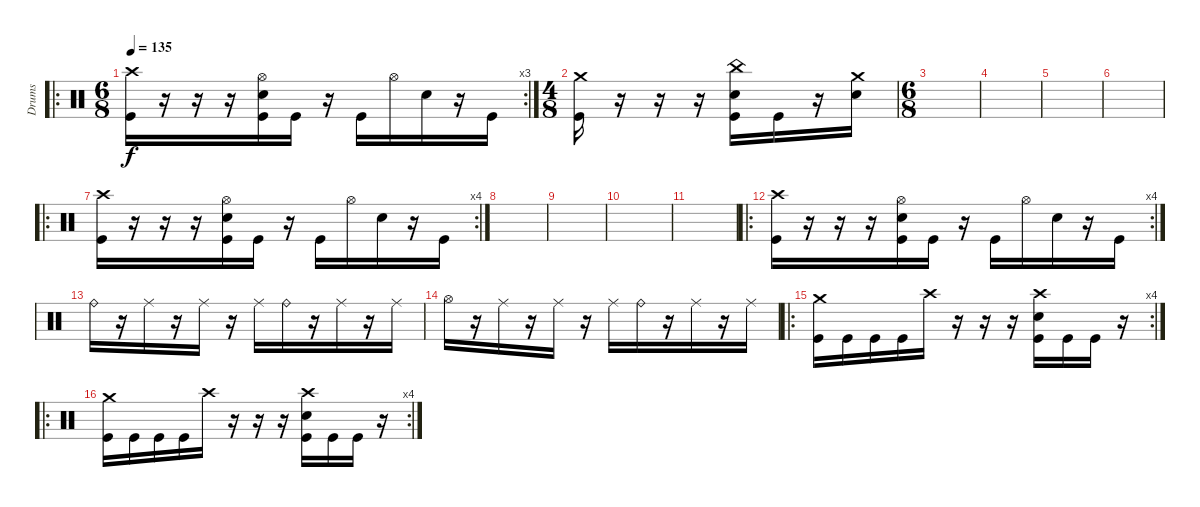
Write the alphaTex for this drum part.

\track ("Drums" "Drums") {instrument percussion}
\staff {score}
\articulation defaults
\ro
\rc 3
\ts (6 8)
\tempo 135
\clef neutral
\ks c
("Crash high (hit)" "Kick (hit)").16{dy f} r.16 r.16 r.16 ("Hi-Hat (open)" "Snare (hit) 2" "Kick (hit)").16 "Kick (hit)".16 r.16 "Kick (hit)".16 "Hi-Hat (open)".16 "Snare (hit) 2".16 r.16 "Kick (hit)".16 |
\ts (4 8)
("Crash medium (hit)" "Kick (hit)").16 r.16 r.16 r.16 ("China (hit)" "Snare (hit) 2" "Kick (hit)").16 "Kick (hit)".16 r.16 ("Crash medium (hit)" "Snare (hit) 2").16 |
\ts (6 8)
|
|
|
|
\ro
\rc 4
("Crash high (hit)" "Kick (hit)").16 r.16 r.16 r.16 ("Hi-Hat (open)" "Snare (hit) 2" "Kick (hit)").16 "Kick (hit)".16 r.16 "Kick (hit)".16 "Hi-Hat (open)".16 "Snare (hit) 2".16 r.16 "Kick (hit)".16 |
|
|
|
|
\ro
\rc 4
("Crash high (hit)" "Kick (hit)").16 r.16 r.16 r.16 ("Hi-Hat (open)" "Snare (hit) 2" "Kick (hit)").16 "Kick (hit)".16 r.16 "Kick (hit)".16 "Hi-Hat (open)".16 "Snare (hit) 2".16 r.16 "Kick (hit)".16 |
"Ride (bell)".16 r.16 "Ride (middle)".16 r.16 "Ride (middle)".16 r.16 "Ride (middle)".16 "Ride (bell)".16 r.16 "Ride (middle)".16 r.16 "Ride (middle)".16 |
"Hi-Hat (open)".16 r.16 "Ride (middle)".16 r.16 "Ride (middle)".16 r.16 "Ride (middle)".16 "Ride (bell)".16 r.16 "Ride (middle)".16 r.16 "Ride (middle)".16 |
\ro
\rc 4
("Crash medium (hit)" "Kick (hit)").16 "Kick (hit)".16 "Kick (hit)".16 "Kick (hit)".16 "Crash high (hit)".16 r.16 r.16 r.16 ("Crash high (hit)" "Snare (hit) 2" "Kick (hit)").16 "Kick (hit)".16 "Kick (hit)".16 r.16 |
\ro
\rc 4
("Crash medium (hit)" "Kick (hit)").16 "Kick (hit)".16 "Kick (hit)".16 "Kick (hit)".16 "Crash high (hit)".16 r.16 r.16 r.16 ("Crash high (hit)" "Snare (hit) 2" "Kick (hit)").16 "Kick (hit)".16 "Kick (hit)".16 r.16
